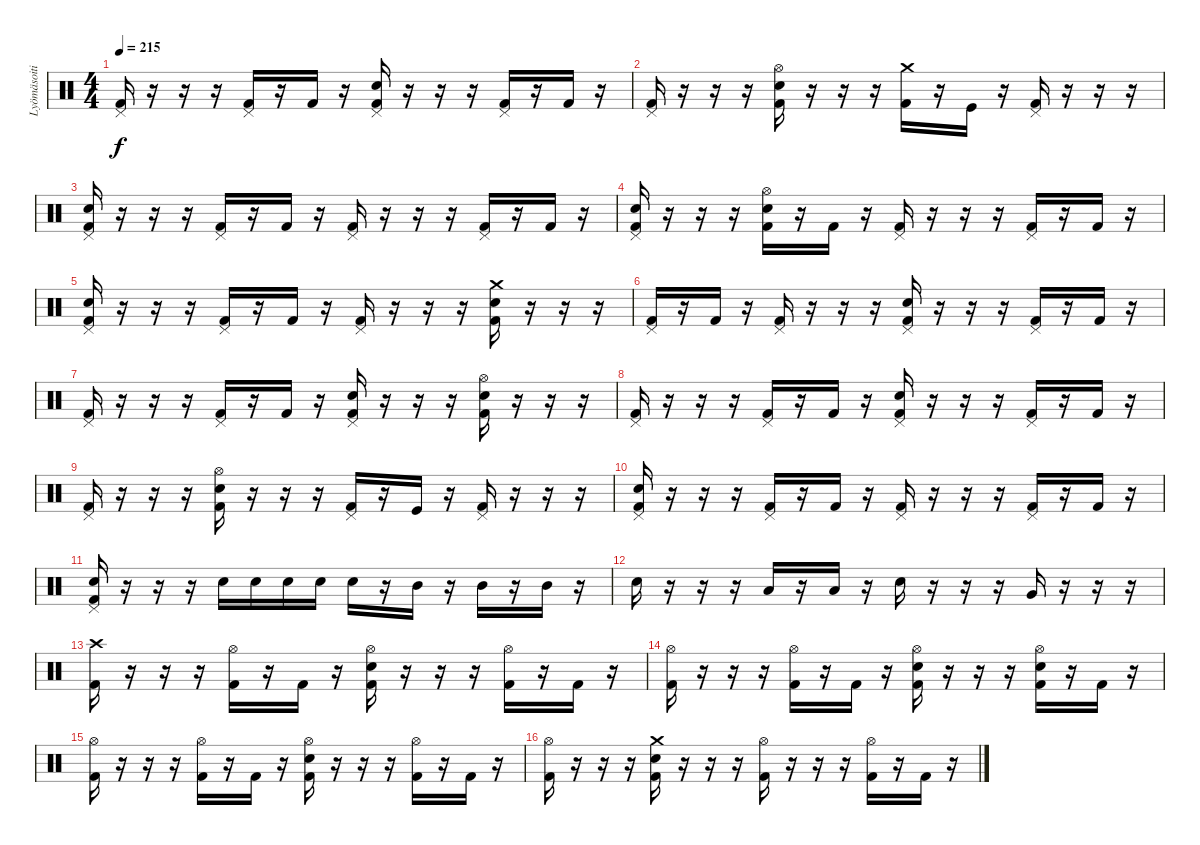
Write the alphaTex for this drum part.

\track ("Lyömäsoitin" "Lyömäsoiti") {instrument percussion}
\staff {score}
\articulation defaults
\ts (4 4)
\tempo 215
\clef neutral
\ks c
("Pedal Hi-Hat (hit)" "Kick (hit) 2").16{dy f} r.16 r.16 r.16 ("Pedal Hi-Hat (hit)" "Kick (hit) 2").16 r.16 "Kick (hit) 2".16 r.16 ("Electric Snare (hit)" "Pedal Hi-Hat (hit)" "Kick (hit) 2").16 r.16 r.16 r.16 ("Pedal Hi-Hat (hit)" "Kick (hit) 2").16 r.16 "Kick (hit) 2".16 r.16 |
("Pedal Hi-Hat (hit)" "Kick (hit) 2").16 r.16 r.16 r.16 ("Electric Snare (hit)" "Hi-Hat (open)" "Kick (hit) 2").16 r.16 r.16 r.16 ("Crash medium (hit)" "Kick (hit) 2").16 r.16 "Kick (hit)".16 r.16 ("Pedal Hi-Hat (hit)" "Kick (hit) 2").16 r.16 r.16 r.16 |
("Electric Snare (hit)" "Pedal Hi-Hat (hit)" "Kick (hit) 2").16 r.16 r.16 r.16 ("Pedal Hi-Hat (hit)" "Kick (hit) 2").16 r.16 "Kick (hit) 2".16 r.16 ("Pedal Hi-Hat (hit)" "Kick (hit) 2").16 r.16 r.16 r.16 ("Pedal Hi-Hat (hit)" "Kick (hit) 2").16 r.16 "Kick (hit) 2".16 r.16 |
("Electric Snare (hit)" "Pedal Hi-Hat (hit)" "Kick (hit) 2").16 r.16 r.16 r.16 ("Electric Snare (hit)" "Hi-Hat (open)" "Kick (hit) 2").16 r.16 "Kick (hit) 2".16 r.16 ("Pedal Hi-Hat (hit)" "Kick (hit) 2").16 r.16 r.16 r.16 ("Pedal Hi-Hat (hit)" "Kick (hit) 2").16 r.16 "Kick (hit) 2".16 r.16 |
("Pedal Hi-Hat (hit)" "Electric Snare (hit)" "Kick (hit) 2").16 r.16 r.16 r.16 ("Pedal Hi-Hat (hit)" "Kick (hit) 2").16 r.16 "Kick (hit) 2".16 r.16 ("Pedal Hi-Hat (hit)" "Kick (hit) 2").16 r.16 r.16 r.16 ("Electric Snare (hit)" "Crash medium (hit)" "Kick (hit) 2").16 r.16 r.16 r.16 |
("Pedal Hi-Hat (hit)" "Kick (hit) 2").16 r.16 "Kick (hit) 2".16 r.16 ("Pedal Hi-Hat (hit)" "Kick (hit) 2").16 r.16 r.16 r.16 ("Electric Snare (hit)" "Pedal Hi-Hat (hit)" "Kick (hit) 2").16 r.16 r.16 r.16 ("Pedal Hi-Hat (hit)" "Kick (hit) 2").16 r.16 "Kick (hit) 2".16 r.16 |
("Pedal Hi-Hat (hit)" "Kick (hit) 2").16 r.16 r.16 r.16 ("Pedal Hi-Hat (hit)" "Kick (hit) 2").16 r.16 "Kick (hit) 2".16 r.16 ("Electric Snare (hit)" "Pedal Hi-Hat (hit)" "Kick (hit) 2").16 r.16 r.16 r.16 ("Electric Snare (hit)" "Hi-Hat (open)" "Kick (hit) 2").16 r.16 r.16 r.16 |
("Pedal Hi-Hat (hit)" "Kick (hit) 2").16 r.16 r.16 r.16 ("Pedal Hi-Hat (hit)" "Kick (hit) 2").16 r.16 "Kick (hit) 2".16 r.16 ("Electric Snare (hit)" "Pedal Hi-Hat (hit)" "Kick (hit) 2").16 r.16 r.16 r.16 ("Pedal Hi-Hat (hit)" "Kick (hit) 2").16 r.16 "Kick (hit) 2".16 r.16 |
("Pedal Hi-Hat (hit)" "Kick (hit) 2").16 r.16 r.16 r.16 ("Hi-Hat (open)" "Electric Snare (hit)" "Kick (hit) 2").16 r.16 r.16 r.16 ("Pedal Hi-Hat (hit)" "Kick (hit) 2").16 r.16 "Kick (hit)".16 r.16 ("Pedal Hi-Hat (hit)" "Kick (hit) 2").16 r.16 r.16 r.16 |
("Electric Snare (hit)" "Pedal Hi-Hat (hit)" "Kick (hit) 2").16 r.16 r.16 r.16 ("Pedal Hi-Hat (hit)" "Kick (hit) 2").16 r.16 "Kick (hit) 2".16 r.16 ("Pedal Hi-Hat (hit)" "Kick (hit) 2").16 r.16 r.16 r.16 ("Pedal Hi-Hat (hit)" "Kick (hit) 2").16 r.16 "Kick (hit) 2".16 r.16 |
("Electric Snare (hit)" "Pedal Hi-Hat (hit)" "Kick (hit) 2").16 r.16 r.16 r.16 "Electric Snare (hit)".16 "Electric Snare (hit)".16 "Electric Snare (hit)".16 "Electric Snare (hit)".16 "Electric Snare (hit)".16 r.16 "Mid Tom (hit)".16 r.16 "Mid Tom (hit)".16 r.16 "Mid Tom (hit)".16 r.16 |
"Electric Snare (hit)".16 r.16 r.16 r.16 "Low Tom (hit)".16 r.16 "Low Tom (hit)".16 r.16 "Electric Snare (hit)".16 r.16 r.16 r.16 "Very Low Tom (hit)".16 r.16 r.16 r.16 |
("Crash high (hit)" "Kick (hit) 2").16 r.16 r.16 r.16 ("Hi-Hat (open)" "Kick (hit) 2").16 r.16 "Kick (hit) 2".16 r.16 ("Electric Snare (hit)" "Hi-Hat (open)" "Kick (hit) 2").16 r.16 r.16 r.16 ("Hi-Hat (open)" "Kick (hit) 2").16 r.16 "Kick (hit) 2".16 r.16 |
("Hi-Hat (open)" "Kick (hit) 2").16 r.16 r.16 r.16 ("Hi-Hat (open)" "Kick (hit) 2").16 r.16 "Kick (hit) 2".16 r.16 ("Electric Snare (hit)" "Hi-Hat (open)" "Kick (hit) 2").16 r.16 r.16 r.16 ("Electric Snare (hit)" "Hi-Hat (open)" "Kick (hit) 2").16 r.16 "Kick (hit) 2".16 r.16 |
("Hi-Hat (open)" "Kick (hit) 2").16 r.16 r.16 r.16 ("Hi-Hat (open)" "Kick (hit) 2").16 r.16 "Kick (hit) 2".16 r.16 ("Electric Snare (hit)" "Hi-Hat (open)" "Kick (hit) 2").16 r.16 r.16 r.16 ("Hi-Hat (open)" "Kick (hit) 2").16 r.16 "Kick (hit) 2".16 r.16 |
("Hi-Hat (open)" "Kick (hit) 2").16 r.16 r.16 r.16 ("Electric Snare (hit)" "Crash medium (hit)" "Kick (hit) 2").16 r.16 r.16 r.16 ("Hi-Hat (open)" "Kick (hit) 2").16 r.16 r.16 r.16 ("Hi-Hat (open)" "Kick (hit) 2").16 r.16 "Kick (hit) 2".16 r.16
